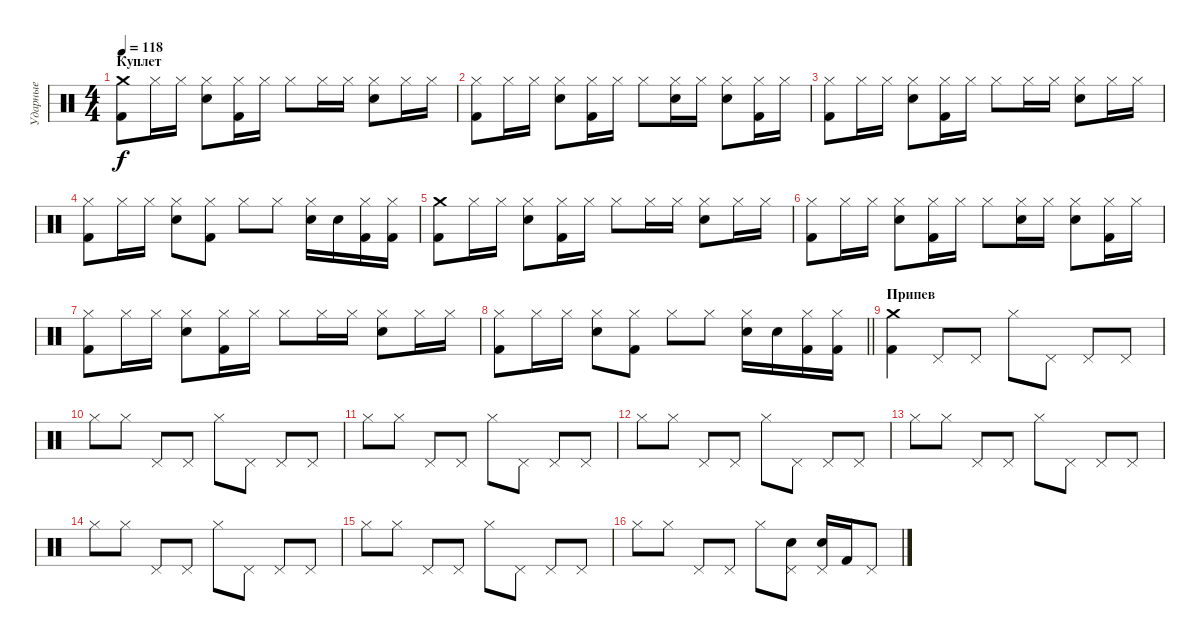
\track ("Ударные" "Ударные") {instrument percussion}
\staff {score}
\articulation defaults
\ts (4 4)
\section ("" "Куплет")
\tempo 118
\clef neutral
\ks c
("Crash medium (hit)" "Kick (hit) 2").8{dy f} "Hi-Hat (closed)".16 "Hi-Hat (closed)".16 ("Hi-Hat (closed)" "Electric Snare (hit)").8 ("Hi-Hat (closed)" "Kick (hit) 2").16 "Hi-Hat (closed)".16 "Hi-Hat (closed)".8 "Hi-Hat (closed)".16 "Hi-Hat (closed)".16 ("Hi-Hat (closed)" "Electric Snare (hit)").8 "Hi-Hat (closed)".16 "Hi-Hat (closed)".16 |
("Hi-Hat (closed)" "Kick (hit) 2").8 "Hi-Hat (closed)".16 "Hi-Hat (closed)".16 ("Hi-Hat (closed)" "Electric Snare (hit)").8 ("Hi-Hat (closed)" "Kick (hit) 2").16 "Hi-Hat (closed)".16 "Hi-Hat (closed)".8 ("Hi-Hat (closed)" "Electric Snare (hit)").16 "Hi-Hat (closed)".16 ("Hi-Hat (closed)" "Electric Snare (hit)").8 ("Hi-Hat (closed)" "Kick (hit) 2").16 "Hi-Hat (closed)".16 |
("Hi-Hat (closed)" "Kick (hit) 2").8 "Hi-Hat (closed)".16 "Hi-Hat (closed)".16 ("Hi-Hat (closed)" "Electric Snare (hit)").8 ("Hi-Hat (closed)" "Kick (hit) 2").16 "Hi-Hat (closed)".16 "Hi-Hat (closed)".8 "Hi-Hat (closed)".16 "Hi-Hat (closed)".16 ("Hi-Hat (closed)" "Electric Snare (hit)").8 "Hi-Hat (closed)".16 "Hi-Hat (closed)".16 |
("Hi-Hat (closed)" "Kick (hit) 2").8 "Hi-Hat (closed)".16 "Hi-Hat (closed)".16 ("Hi-Hat (closed)" "Electric Snare (hit)").8 ("Hi-Hat (closed)" "Kick (hit) 2").8 "Hi-Hat (closed)".8 "Hi-Hat (closed)".8 ("Hi-Hat (closed)" "Electric Snare (hit)").16 "Electric Snare (hit)".16 ("Hi-Hat (closed)" "Kick (hit) 2").16 ("Hi-Hat (closed)" "Kick (hit) 2").16 |
("Crash medium (hit)" "Kick (hit) 2").8 "Hi-Hat (closed)".16 "Hi-Hat (closed)".16 ("Hi-Hat (closed)" "Electric Snare (hit)").8 ("Hi-Hat (closed)" "Kick (hit) 2").16 "Hi-Hat (closed)".16 "Hi-Hat (closed)".8 "Hi-Hat (closed)".16 "Hi-Hat (closed)".16 ("Hi-Hat (closed)" "Electric Snare (hit)").8 "Hi-Hat (closed)".16 "Hi-Hat (closed)".16 |
("Hi-Hat (closed)" "Kick (hit) 2").8 "Hi-Hat (closed)".16 "Hi-Hat (closed)".16 ("Hi-Hat (closed)" "Electric Snare (hit)").8 ("Hi-Hat (closed)" "Kick (hit) 2").16 "Hi-Hat (closed)".16 "Hi-Hat (closed)".8 ("Hi-Hat (closed)" "Electric Snare (hit)").16 "Hi-Hat (closed)".16 ("Hi-Hat (closed)" "Electric Snare (hit)").8 ("Hi-Hat (closed)" "Kick (hit) 2").16 "Hi-Hat (closed)".16 |
("Hi-Hat (closed)" "Kick (hit) 2").8 "Hi-Hat (closed)".16 "Hi-Hat (closed)".16 ("Hi-Hat (closed)" "Electric Snare (hit)").8 ("Hi-Hat (closed)" "Kick (hit) 2").16 "Hi-Hat (closed)".16 "Hi-Hat (closed)".8 "Hi-Hat (closed)".16 "Hi-Hat (closed)".16 ("Hi-Hat (closed)" "Electric Snare (hit)").8 "Hi-Hat (closed)".16 "Hi-Hat (closed)".16 |
\barLineRight lightlight
("Hi-Hat (closed)" "Kick (hit) 2").8 "Hi-Hat (closed)".16 "Hi-Hat (closed)".16 ("Hi-Hat (closed)" "Electric Snare (hit)").8 ("Hi-Hat (closed)" "Kick (hit) 2").8 "Hi-Hat (closed)".8 "Hi-Hat (closed)".8 ("Hi-Hat (closed)" "Electric Snare (hit)").16 "Electric Snare (hit)".16 ("Hi-Hat (closed)" "Kick (hit) 2").16 ("Hi-Hat (closed)" "Kick (hit) 2").16 |
\section ("" "Припев")
("Crash medium (hit)" "Kick (hit) 2").4 "Pedal Hi-Hat (hit)".8 "Pedal Hi-Hat (hit)".8 "Hi-Hat (closed)".8 "Pedal Hi-Hat (hit)".8 "Pedal Hi-Hat (hit)".8 "Pedal Hi-Hat (hit)".8 |
"Hi-Hat (closed)".8 "Hi-Hat (closed)".8 "Pedal Hi-Hat (hit)".8 "Pedal Hi-Hat (hit)".8 "Hi-Hat (closed)".8 "Pedal Hi-Hat (hit)".8 "Pedal Hi-Hat (hit)".8 "Pedal Hi-Hat (hit)".8 |
"Hi-Hat (closed)".8 "Hi-Hat (closed)".8 "Pedal Hi-Hat (hit)".8 "Pedal Hi-Hat (hit)".8 "Hi-Hat (closed)".8 "Pedal Hi-Hat (hit)".8 "Pedal Hi-Hat (hit)".8 "Pedal Hi-Hat (hit)".8 |
"Hi-Hat (closed)".8 "Hi-Hat (closed)".8 "Pedal Hi-Hat (hit)".8 "Pedal Hi-Hat (hit)".8 "Hi-Hat (closed)".8 "Pedal Hi-Hat (hit)".8 "Pedal Hi-Hat (hit)".8 "Pedal Hi-Hat (hit)".8 |
"Hi-Hat (closed)".8 "Hi-Hat (closed)".8 "Pedal Hi-Hat (hit)".8 "Pedal Hi-Hat (hit)".8 "Hi-Hat (closed)".8 "Pedal Hi-Hat (hit)".8 "Pedal Hi-Hat (hit)".8 "Pedal Hi-Hat (hit)".8 |
"Hi-Hat (closed)".8 "Hi-Hat (closed)".8 "Pedal Hi-Hat (hit)".8 "Pedal Hi-Hat (hit)".8 "Hi-Hat (closed)".8 "Pedal Hi-Hat (hit)".8 "Pedal Hi-Hat (hit)".8 "Pedal Hi-Hat (hit)".8 |
"Hi-Hat (closed)".8 "Hi-Hat (closed)".8 "Pedal Hi-Hat (hit)".8 "Pedal Hi-Hat (hit)".8 "Hi-Hat (closed)".8 "Pedal Hi-Hat (hit)".8 "Pedal Hi-Hat (hit)".8 "Pedal Hi-Hat (hit)".8 |
"Hi-Hat (closed)".8 "Hi-Hat (closed)".8 "Pedal Hi-Hat (hit)".8 "Pedal Hi-Hat (hit)".8 "Hi-Hat (closed)".8 ("Pedal Hi-Hat (hit)" "Electric Snare (hit)").8 ("Pedal Hi-Hat (hit)" "Electric Snare (hit)").16 "Kick (hit) 2".16 "Pedal Hi-Hat (hit)".8
